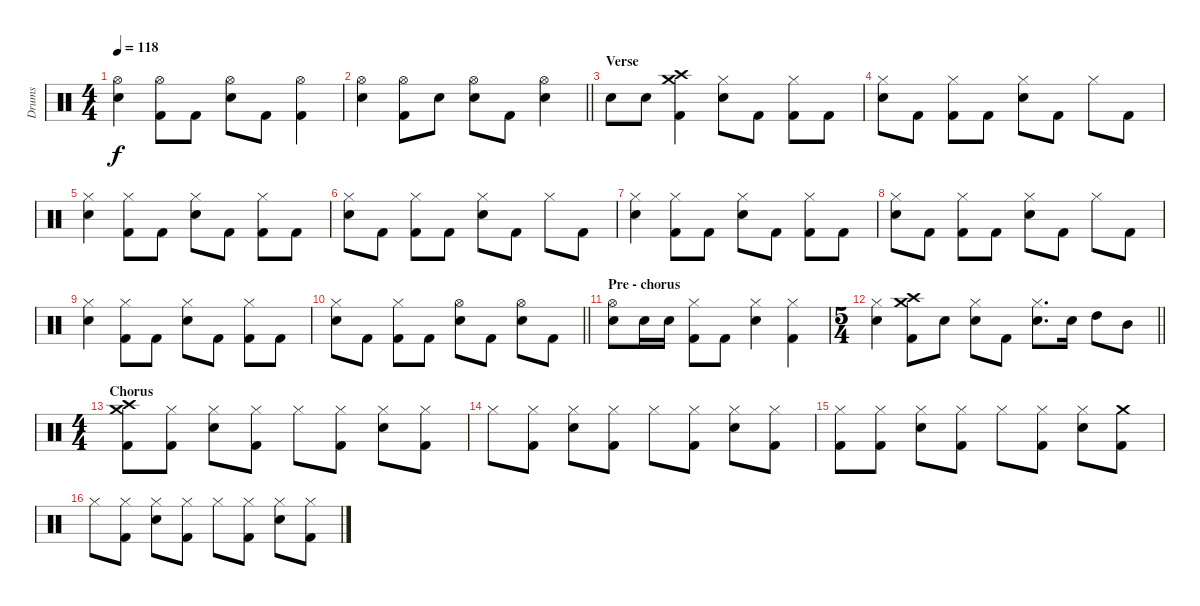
\track ("Drums" "Drums") {instrument percussion}
\staff {score}
\articulation defaults
\ts (4 4)
\tempo 118
\clef neutral
\ks c
("Hi-Hat (open)" "Snare (hit) 2").4{dy f} ("Hi-Hat (open)" "Kick (hit) 2").8 "Kick (hit) 2".8 ("Hi-Hat (open)" "Snare (hit) 2").8 "Kick (hit) 2".8 ("Hi-Hat (open)" "Kick (hit) 2").4 |
\barLineRight lightlight
("Hi-Hat (open)" "Snare (hit) 2").4 ("Hi-Hat (open)" "Kick (hit) 2").8 "Snare (hit) 2".8 ("Hi-Hat (open)" "Snare (hit) 2").8 "Kick (hit) 2".8 ("Hi-Hat (open)" "Snare (hit) 2").4 |
\section ("" "Verse")
"Snare (hit) 2".8 "Snare (hit) 2".8 ("Crash medium (hit)" "Crash high (hit)" "Kick (hit) 2").4 ("Hi-Hat (closed)" "Snare (hit) 2").8 "Kick (hit) 2".8 ("Hi-Hat (closed)" "Kick (hit) 2").8 "Kick (hit) 2".8 |
("Hi-Hat (closed)" "Snare (hit) 2").8 "Kick (hit) 2".8 ("Hi-Hat (closed)" "Kick (hit) 2").8 "Kick (hit) 2".8 ("Hi-Hat (closed)" "Snare (hit) 2").8 "Kick (hit) 2".8 "Hi-Hat (closed)".8 "Kick (hit) 2".8 |
("Hi-Hat (closed)" "Snare (hit) 2").4 ("Hi-Hat (closed)" "Kick (hit) 2").8 "Kick (hit) 2".8 ("Hi-Hat (closed)" "Snare (hit) 2").8 "Kick (hit) 2".8 ("Hi-Hat (closed)" "Kick (hit) 2").8 "Kick (hit) 2".8 |
("Hi-Hat (closed)" "Snare (hit) 2").8 "Kick (hit) 2".8 ("Hi-Hat (closed)" "Kick (hit) 2").8 "Kick (hit) 2".8 ("Hi-Hat (closed)" "Snare (hit) 2").8 "Kick (hit) 2".8 "Hi-Hat (closed)".8 "Kick (hit) 2".8 |
("Hi-Hat (closed)" "Snare (hit) 2").4 ("Hi-Hat (closed)" "Kick (hit) 2").8 "Kick (hit) 2".8 ("Hi-Hat (closed)" "Snare (hit) 2").8 "Kick (hit) 2".8 ("Hi-Hat (closed)" "Kick (hit) 2").8 "Kick (hit) 2".8 |
("Hi-Hat (closed)" "Snare (hit) 2").8 "Kick (hit) 2".8 ("Hi-Hat (closed)" "Kick (hit) 2").8 "Kick (hit) 2".8 ("Hi-Hat (closed)" "Snare (hit) 2").8 "Kick (hit) 2".8 "Hi-Hat (closed)".8 "Kick (hit) 2".8 |
("Hi-Hat (closed)" "Snare (hit) 2").4 ("Hi-Hat (closed)" "Kick (hit) 2").8 "Kick (hit) 2".8 ("Hi-Hat (closed)" "Snare (hit) 2").8 "Kick (hit) 2".8 ("Hi-Hat (closed)" "Kick (hit) 2").8 "Kick (hit) 2".8 |
\barLineRight lightlight
("Hi-Hat (closed)" "Snare (hit) 2").8 "Kick (hit) 2".8 ("Hi-Hat (closed)" "Kick (hit) 2").8 "Kick (hit) 2".8 ("Hi-Hat (open)" "Snare (hit) 2").8 "Kick (hit) 2".8 ("Hi-Hat (open)" "Snare (hit) 2").8 "Kick (hit) 2".8 |
\section ("" "Pre - chorus")
("Hi-Hat (open)" "Snare (hit) 2").8 "Snare (hit) 2".16 "Snare (hit) 2".16 ("Hi-Hat (closed)" "Kick (hit) 2").8 "Kick (hit) 2".8 ("Hi-Hat (closed)" "Snare (hit) 2").4 ("Hi-Hat (closed)" "Kick (hit) 2").4 |
\ts (5 4)
\barLineRight lightlight
("Hi-Hat (closed)" "Snare (hit) 2").4 ("Crash medium (hit)" "Crash high (hit)" "Kick (hit) 2").8 "Snare (hit) 2".8 ("Hi-Hat (closed)" "Snare (hit) 2").8 "Kick (hit) 2".8 ("Hi-Hat (closed)" "Snare (hit) 2").8{d} "Snare (hit) 2".16 "High Tom (hit)".8 "Mid Tom (hit)".8 |
\ts (4 4)
\section ("" "Chorus")
("Crash medium (hit)" "Crash high (hit)" "Kick (hit) 2").8 ("Hi-Hat (closed)" "Kick (hit) 2").8 ("Hi-Hat (closed)" "Snare (hit) 2").8 ("Hi-Hat (closed)" "Kick (hit) 2").8 "Hi-Hat (closed)".8 ("Hi-Hat (closed)" "Kick (hit) 2").8 ("Hi-Hat (closed)" "Snare (hit) 2").8 ("Hi-Hat (closed)" "Kick (hit) 2").8 |
"Hi-Hat (closed)".8 ("Hi-Hat (closed)" "Kick (hit) 2").8 ("Hi-Hat (closed)" "Snare (hit) 2").8 ("Hi-Hat (closed)" "Kick (hit) 2").8 "Hi-Hat (closed)".8 ("Hi-Hat (closed)" "Kick (hit) 2").8 ("Hi-Hat (closed)" "Snare (hit) 2").8 ("Hi-Hat (closed)" "Kick (hit) 2").8 |
("Hi-Hat (closed)" "Kick (hit) 2").8 ("Hi-Hat (closed)" "Kick (hit) 2").8 ("Hi-Hat (closed)" "Snare (hit) 2").8 ("Hi-Hat (closed)" "Kick (hit) 2").8 "Hi-Hat (closed)".8 ("Hi-Hat (closed)" "Kick (hit) 2").8 ("Hi-Hat (closed)" "Snare (hit) 2").8 ("Crash medium (hit)" "Kick (hit) 2").8 |
"Hi-Hat (closed)".8 ("Hi-Hat (closed)" "Kick (hit) 2").8 ("Hi-Hat (closed)" "Snare (hit) 2").8 ("Hi-Hat (closed)" "Kick (hit) 2").8 "Hi-Hat (closed)".8 ("Hi-Hat (closed)" "Kick (hit) 2").8 ("Hi-Hat (closed)" "Snare (hit) 2").8 ("Hi-Hat (closed)" "Kick (hit) 2").8
